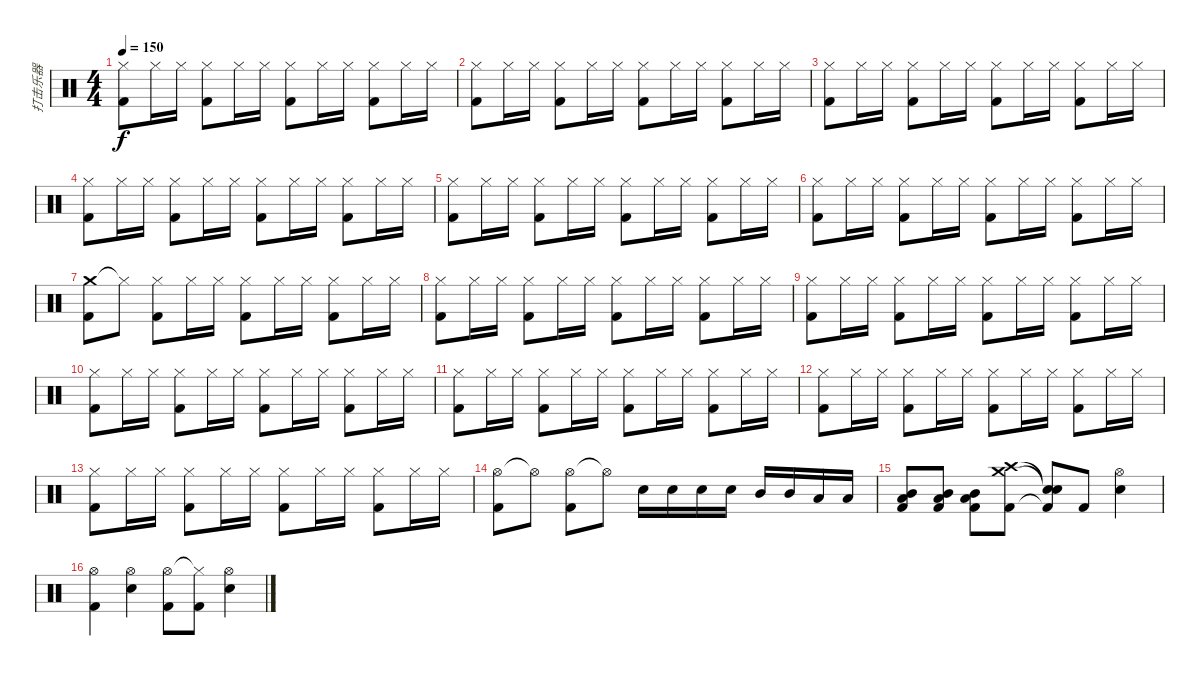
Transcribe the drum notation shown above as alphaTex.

\track ("打击乐器" "打击乐器") {instrument percussion}
\staff {score}
\articulation defaults
\ts (4 4)
\tempo 150
\clef neutral
\ks c
("Hi-Hat (closed)" "Kick (hit) 2").8{dy f} "Hi-Hat (closed)".16 "Hi-Hat (closed)".16 ("Hi-Hat (closed)" "Kick (hit) 2").8 "Hi-Hat (closed)".16 "Hi-Hat (closed)".16 ("Hi-Hat (closed)" "Kick (hit) 2").8 "Hi-Hat (closed)".16 "Hi-Hat (closed)".16 ("Hi-Hat (closed)" "Kick (hit) 2").8 "Hi-Hat (closed)".16 "Hi-Hat (closed)".16 |
("Hi-Hat (closed)" "Kick (hit) 2").8 "Hi-Hat (closed)".16 "Hi-Hat (closed)".16 ("Hi-Hat (closed)" "Kick (hit) 2").8 "Hi-Hat (closed)".16 "Hi-Hat (closed)".16 ("Hi-Hat (closed)" "Kick (hit) 2").8 "Hi-Hat (closed)".16 "Hi-Hat (closed)".16 ("Hi-Hat (closed)" "Kick (hit) 2").8 "Hi-Hat (closed)".16 "Hi-Hat (closed)".16 |
("Hi-Hat (closed)" "Kick (hit) 2").8 "Hi-Hat (closed)".16 "Hi-Hat (closed)".16 ("Hi-Hat (closed)" "Kick (hit) 2").8 "Hi-Hat (closed)".16 "Hi-Hat (closed)".16 ("Hi-Hat (closed)" "Kick (hit) 2").8 "Hi-Hat (closed)".16 "Hi-Hat (closed)".16 ("Hi-Hat (closed)" "Kick (hit) 2").8 "Hi-Hat (closed)".16 "Hi-Hat (closed)".16 |
("Hi-Hat (closed)" "Kick (hit) 2").8 "Hi-Hat (closed)".16 "Hi-Hat (closed)".16 ("Hi-Hat (closed)" "Kick (hit) 2").8 "Hi-Hat (closed)".16 "Hi-Hat (closed)".16 ("Hi-Hat (closed)" "Kick (hit) 2").8 "Hi-Hat (closed)".16 "Hi-Hat (closed)".16 ("Hi-Hat (closed)" "Kick (hit) 2").8 "Hi-Hat (closed)".16 "Hi-Hat (closed)".16 |
("Hi-Hat (closed)" "Kick (hit) 2").8 "Hi-Hat (closed)".16 "Hi-Hat (closed)".16 ("Hi-Hat (closed)" "Kick (hit) 2").8 "Hi-Hat (closed)".16 "Hi-Hat (closed)".16 ("Hi-Hat (closed)" "Kick (hit) 2").8 "Hi-Hat (closed)".16 "Hi-Hat (closed)".16 ("Hi-Hat (closed)" "Kick (hit) 2").8 "Hi-Hat (closed)".16 "Hi-Hat (closed)".16 |
("Hi-Hat (closed)" "Kick (hit) 2").8 "Hi-Hat (closed)".16 "Hi-Hat (closed)".16 ("Hi-Hat (closed)" "Kick (hit) 2").8 "Hi-Hat (closed)".16 "Hi-Hat (closed)".16 ("Hi-Hat (closed)" "Kick (hit) 2").8 "Hi-Hat (closed)".16 "Hi-Hat (closed)".16 ("Hi-Hat (closed)" "Kick (hit) 2").8 "Hi-Hat (closed)".16 "Hi-Hat (closed)".16 |
("Crash medium (hit)" "Kick (hit) 2").8 "Hi-Hat (closed)"{t}.8 ("Hi-Hat (closed)" "Kick (hit) 2").8 "Hi-Hat (closed)".16 "Hi-Hat (closed)".16 ("Hi-Hat (closed)" "Kick (hit) 2").8 "Hi-Hat (closed)".16 "Hi-Hat (closed)".16 ("Hi-Hat (closed)" "Kick (hit) 2").8 "Hi-Hat (closed)".16 "Hi-Hat (closed)".16 |
("Hi-Hat (closed)" "Kick (hit) 2").8 "Hi-Hat (closed)".16 "Hi-Hat (closed)".16 ("Hi-Hat (closed)" "Kick (hit) 2").8 "Hi-Hat (closed)".16 "Hi-Hat (closed)".16 ("Hi-Hat (closed)" "Kick (hit) 2").8 "Hi-Hat (closed)".16 "Hi-Hat (closed)".16 ("Hi-Hat (closed)" "Kick (hit) 2").8 "Hi-Hat (closed)".16 "Hi-Hat (closed)".16 |
("Hi-Hat (closed)" "Kick (hit) 2").8 "Hi-Hat (closed)".16 "Hi-Hat (closed)".16 ("Hi-Hat (closed)" "Kick (hit) 2").8 "Hi-Hat (closed)".16 "Hi-Hat (closed)".16 ("Hi-Hat (closed)" "Kick (hit) 2").8 "Hi-Hat (closed)".16 "Hi-Hat (closed)".16 ("Hi-Hat (closed)" "Kick (hit) 2").8 "Hi-Hat (closed)".16 "Hi-Hat (closed)".16 |
("Hi-Hat (closed)" "Kick (hit) 2").8 "Hi-Hat (closed)".16 "Hi-Hat (closed)".16 ("Hi-Hat (closed)" "Kick (hit) 2").8 "Hi-Hat (closed)".16 "Hi-Hat (closed)".16 ("Hi-Hat (closed)" "Kick (hit) 2").8 "Hi-Hat (closed)".16 "Hi-Hat (closed)".16 ("Hi-Hat (closed)" "Kick (hit) 2").8 "Hi-Hat (closed)".16 "Hi-Hat (closed)".16 |
("Hi-Hat (closed)" "Kick (hit) 2").8 "Hi-Hat (closed)".16 "Hi-Hat (closed)".16 ("Hi-Hat (closed)" "Kick (hit) 2").8 "Hi-Hat (closed)".16 "Hi-Hat (closed)".16 ("Hi-Hat (closed)" "Kick (hit) 2").8 "Hi-Hat (closed)".16 "Hi-Hat (closed)".16 ("Hi-Hat (closed)" "Kick (hit) 2").8 "Hi-Hat (closed)".16 "Hi-Hat (closed)".16 |
("Hi-Hat (closed)" "Kick (hit) 2").8 "Hi-Hat (closed)".16 "Hi-Hat (closed)".16 ("Hi-Hat (closed)" "Kick (hit) 2").8 "Hi-Hat (closed)".16 "Hi-Hat (closed)".16 ("Hi-Hat (closed)" "Kick (hit) 2").8 "Hi-Hat (closed)".16 "Hi-Hat (closed)".16 ("Hi-Hat (closed)" "Kick (hit) 2").8 "Hi-Hat (closed)".16 "Hi-Hat (closed)".16 |
("Hi-Hat (closed)" "Kick (hit) 2").8 "Hi-Hat (closed)".16 "Hi-Hat (closed)".16 ("Hi-Hat (closed)" "Kick (hit) 2").8 "Hi-Hat (closed)".16 "Hi-Hat (closed)".16 ("Hi-Hat (closed)" "Kick (hit) 2").8 "Hi-Hat (closed)".16 "Hi-Hat (closed)".16 ("Hi-Hat (closed)" "Kick (hit) 2").8 "Hi-Hat (closed)".16 "Hi-Hat (closed)".16 |
("Hi-Hat (open)" "Kick (hit) 2").8 "Hi-Hat (open)"{t}.8 ("Hi-Hat (open)" "Kick (hit) 2").8 "Hi-Hat (open)"{t}.8 "Snare (hit) 2".16 "Snare (hit) 2".16 "Snare (hit) 2".16 "Snare (hit) 2".16 "Mid Tom (hit)".16 "Mid Tom (hit)".16 "Low Tom (hit)".16 "Low Tom (hit)".16 |
("Mid Tom (hit)" "Low Tom (hit)" "Kick (hit) 2").8 ("Mid Tom (hit)" "Low Tom (hit)" "Kick (hit) 2").8 ("Mid Tom (hit)" "Low Tom (hit)" "Kick (hit) 2").8 ("Crash high (hit)" "Crash medium (hit)" "Kick (hit) 2").8 ("Snare (hit)"{t} "Snare (hit)"{t} "Kick (hit) 2"{t}).8 "Kick (hit) 2".8 ("Hi-Hat (open)" "Snare (hit) 2").4 |
("Hi-Hat (open)" "Kick (hit) 2").4 ("Hi-Hat (open)" "Snare (hit) 2").4 ("Hi-Hat (open)" "Kick (hit) 2").8 ("Hi-Hat (closed)"{t} "Kick (hit) 2").8 ("Hi-Hat (open)" "Snare (hit) 2").4
